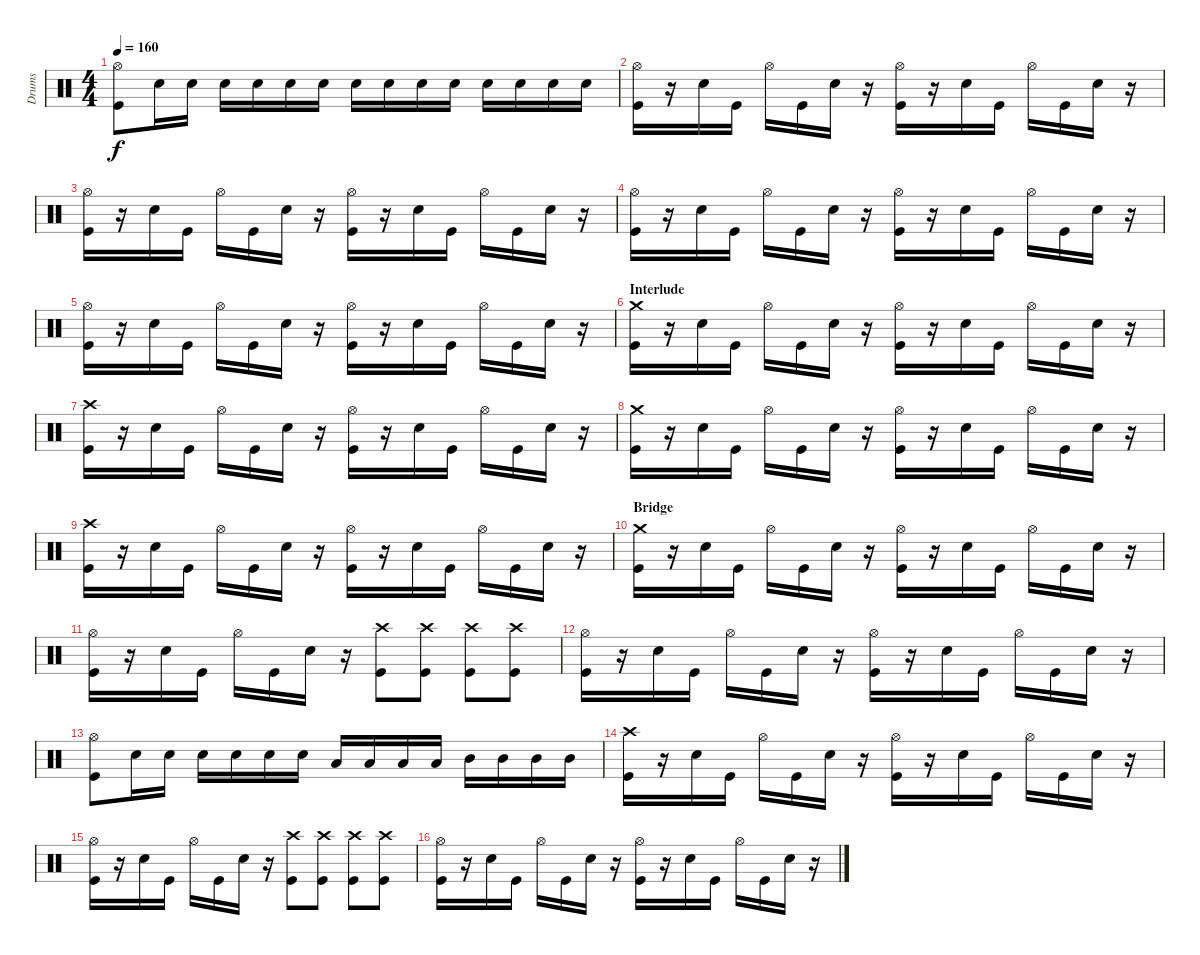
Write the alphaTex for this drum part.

\track ("Drums" "Drums") {instrument percussion}
\staff {score}
\articulation defaults
\ts (4 4)
\tempo 160
\clef neutral
\ks c
("Kick (hit)" "Hi-Hat (open)").8{dy f} "Snare (hit) 2".16 "Snare (hit) 2".16 "Snare (hit) 2".16 "Snare (hit) 2".16 "Snare (hit) 2".16 "Snare (hit) 2".16 "Snare (hit) 2".16 "Snare (hit) 2".16 "Snare (hit) 2".16 "Snare (hit) 2".16 "Snare (hit) 2".16 "Snare (hit) 2".16 "Snare (hit) 2".16 "Snare (hit) 2".16 |
("Kick (hit)" "Hi-Hat (open)").16 r.16 "Snare (hit) 2".16 "Kick (hit)".16 "Hi-Hat (open)".16 "Kick (hit)".16 "Snare (hit) 2".16 r.16 ("Kick (hit)" "Hi-Hat (open)").16 r.16 "Snare (hit) 2".16 "Kick (hit)".16 "Hi-Hat (open)".16 "Kick (hit)".16 "Snare (hit) 2".16 r.16 |
("Kick (hit)" "Hi-Hat (open)").16 r.16 "Snare (hit) 2".16 "Kick (hit)".16 "Hi-Hat (open)".16 "Kick (hit)".16 "Snare (hit) 2".16 r.16 ("Kick (hit)" "Hi-Hat (open)").16 r.16 "Snare (hit) 2".16 "Kick (hit)".16 "Hi-Hat (open)".16 "Kick (hit)".16 "Snare (hit) 2".16 r.16 |
("Kick (hit)" "Hi-Hat (open)").16 r.16 "Snare (hit) 2".16 "Kick (hit)".16 "Hi-Hat (open)".16 "Kick (hit)".16 "Snare (hit) 2".16 r.16 ("Kick (hit)" "Hi-Hat (open)").16 r.16 "Snare (hit) 2".16 "Kick (hit)".16 "Hi-Hat (open)".16 "Kick (hit)".16 "Snare (hit) 2".16 r.16 |
("Kick (hit)" "Hi-Hat (open)").16 r.16 "Snare (hit) 2".16 "Kick (hit)".16 "Hi-Hat (open)".16 "Kick (hit)".16 "Snare (hit) 2".16 r.16 ("Kick (hit)" "Hi-Hat (open)").16 r.16 "Snare (hit) 2".16 "Kick (hit)".16 "Hi-Hat (open)".16 "Kick (hit)".16 "Snare (hit) 2".16 r.16 |
\section ("" "Interlude")
("Kick (hit)" "Crash medium (hit)").16 r.16 "Snare (hit) 2".16 "Kick (hit)".16 "Hi-Hat (open)".16 "Kick (hit)".16 "Snare (hit) 2".16 r.16 ("Kick (hit)" "Hi-Hat (open)").16 r.16 "Snare (hit) 2".16 "Kick (hit)".16 "Hi-Hat (open)".16 "Kick (hit)".16 "Snare (hit) 2".16 r.16 |
("Kick (hit)" "Crash high (hit)").16 r.16 "Snare (hit) 2".16 "Kick (hit)".16 "Hi-Hat (open)".16 "Kick (hit)".16 "Snare (hit) 2".16 r.16 ("Kick (hit)" "Hi-Hat (open)").16 r.16 "Snare (hit) 2".16 "Kick (hit)".16 "Hi-Hat (open)".16 "Kick (hit)".16 "Snare (hit) 2".16 r.16 |
("Kick (hit)" "Crash medium (hit)").16 r.16 "Snare (hit) 2".16 "Kick (hit)".16 "Hi-Hat (open)".16 "Kick (hit)".16 "Snare (hit) 2".16 r.16 ("Kick (hit)" "Hi-Hat (open)").16 r.16 "Snare (hit) 2".16 "Kick (hit)".16 "Hi-Hat (open)".16 "Kick (hit)".16 "Snare (hit) 2".16 r.16 |
("Kick (hit)" "Crash high (hit)").16 r.16 "Snare (hit) 2".16 "Kick (hit)".16 "Hi-Hat (open)".16 "Kick (hit)".16 "Snare (hit) 2".16 r.16 ("Kick (hit)" "Hi-Hat (open)").16 r.16 "Snare (hit) 2".16 "Kick (hit)".16 "Hi-Hat (open)".16 "Kick (hit)".16 "Snare (hit) 2".16 r.16 |
\section ("" "Bridge")
("Kick (hit)" "Crash medium (hit)").16 r.16 "Snare (hit) 2".16 "Kick (hit)".16 "Hi-Hat (open)".16 "Kick (hit)".16 "Snare (hit) 2".16 r.16 ("Kick (hit)" "Hi-Hat (open)").16 r.16 "Snare (hit) 2".16 "Kick (hit)".16 "Hi-Hat (open)".16 "Kick (hit)".16 "Snare (hit) 2".16 r.16 |
("Kick (hit)" "Hi-Hat (open)").16 r.16 "Snare (hit) 2".16 "Kick (hit)".16 "Hi-Hat (open)".16 "Kick (hit)".16 "Snare (hit) 2".16 r.16 ("Kick (hit)" "Crash high (hit)").8 ("Kick (hit)" "Crash high (hit)").8 ("Kick (hit)" "Crash high (hit)").8 ("Kick (hit)" "Crash high (hit)").8 |
("Kick (hit)" "Hi-Hat (open)").16 r.16 "Snare (hit) 2".16 "Kick (hit)".16 "Hi-Hat (open)".16 "Kick (hit)".16 "Snare (hit) 2".16 r.16 ("Kick (hit)" "Hi-Hat (open)").16 r.16 "Snare (hit) 2".16 "Kick (hit)".16 "Hi-Hat (open)".16 "Kick (hit)".16 "Snare (hit) 2".16 r.16 |
("Kick (hit)" "Hi-Hat (open)").8 "Snare (hit) 2".16 "Snare (hit) 2".16 "Snare (hit) 2".16 "Snare (hit) 2".16 "Snare (hit) 2".16 "Snare (hit) 2".16 "Low Tom (hit)".16 "Low Tom (hit)".16 "Low Tom (hit)".16 "Low Tom (hit)".16 "Mid Tom (hit)".16 "Mid Tom (hit)".16 "Mid Tom (hit)".16 "Mid Tom (hit)".16 |
("Kick (hit)" "Crash high (hit)").16 r.16 "Snare (hit) 2".16 "Kick (hit)".16 "Hi-Hat (open)".16 "Kick (hit)".16 "Snare (hit) 2".16 r.16 ("Kick (hit)" "Hi-Hat (open)").16 r.16 "Snare (hit) 2".16 "Kick (hit)".16 "Hi-Hat (open)".16 "Kick (hit)".16 "Snare (hit) 2".16 r.16 |
("Kick (hit)" "Hi-Hat (open)").16 r.16 "Snare (hit) 2".16 "Kick (hit)".16 "Hi-Hat (open)".16 "Kick (hit)".16 "Snare (hit) 2".16 r.16 ("Kick (hit)" "Crash high (hit)").8 ("Kick (hit)" "Crash high (hit)").8 ("Kick (hit)" "Crash high (hit)").8 ("Kick (hit)" "Crash high (hit)").8 |
("Kick (hit)" "Hi-Hat (open)").16 r.16 "Snare (hit) 2".16 "Kick (hit)".16 "Hi-Hat (open)".16 "Kick (hit)".16 "Snare (hit) 2".16 r.16 ("Kick (hit)" "Hi-Hat (open)").16 r.16 "Snare (hit) 2".16 "Kick (hit)".16 "Hi-Hat (open)".16 "Kick (hit)".16 "Snare (hit) 2".16 r.16
